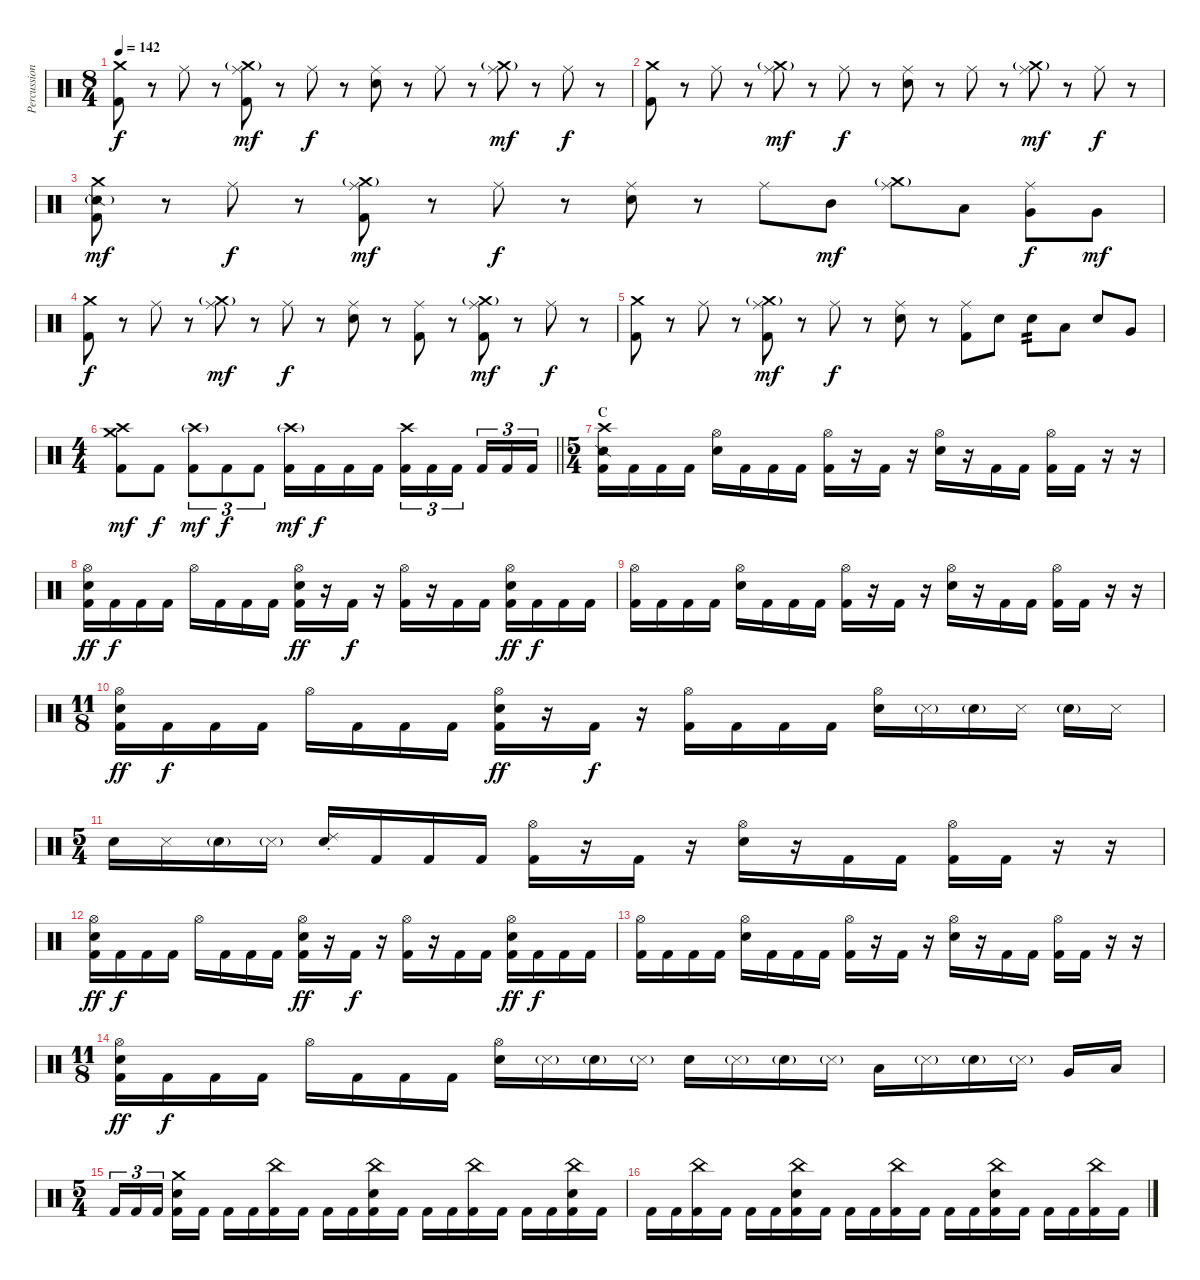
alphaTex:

\track ("Percussion" "Percussion") {instrument percussion}
\staff {score}
\articulation defaults
\ts (8 4)
\tempo 142
\clef neutral
\ks c
("Crash medium (hit)" "Kick (hit) 2").8{dy f} r.8 "Ride (middle)".8 r.8 ("Ride (middle)" "Crash medium (hit)"{g} "Kick (hit) 2").8{dy mf} r.8 "Ride (middle)".8{dy f} r.8 ("Ride (middle)" "Snare (hit) 2").8 r.8 "Ride (middle)".8 r.8 ("Ride (middle)" "Crash medium (hit)"{g}).8{dy mf} r.8 "Ride (middle)".8{dy f} r.8 |
("Crash medium (hit)" "Kick (hit) 2").8 r.8 "Ride (middle)".8 r.8 ("Ride (middle)" "Crash medium (hit)"{g}).8{dy mf} r.8 "Ride (middle)".8{dy f} r.8 ("Ride (middle)" "Snare (hit) 2").8 r.8 "Ride (middle)".8 r.8 ("Ride (middle)" "Crash medium (hit)"{g}).8{dy mf} r.8 "Ride (middle)".8{dy f} r.8 |
("Crash medium (hit)" "Snare (side stick) 2"{g} "Kick (hit) 2").8{dy mf} r.8 "Ride (middle)".8{dy f} r.8 ("Ride (middle)" "Crash medium (hit)"{g} "Kick (hit) 2").8{dy mf} r.8 "Ride (middle)".8{dy f} r.8 ("Ride (middle)" "Snare (hit) 2").8 r.8 "Ride (middle)".8 "Mid Tom (hit)".8{dy mf} ("Ride (middle)" "Crash medium (hit)"{g}).8 "Low Tom (hit)".8 ("Ride (middle)" "Very Low Tom (hit)").8{dy f} "Very Low Tom (hit)".8{dy mf} |
("Crash medium (hit)" "Kick (hit) 2").8{dy f} r.8 "Ride (middle)".8 r.8 ("Ride (middle)" "Crash medium (hit)"{g}).8{dy mf} r.8 "Ride (middle)".8{dy f} r.8 ("Ride (middle)" "Snare (hit) 2").8 r.8 ("Ride (middle)" "Kick (hit) 2").8 r.8 ("Ride (middle)" "Crash medium (hit)"{g} "Kick (hit) 2").8{dy mf} r.8 "Ride (middle)".8{dy f} r.8 |
("Crash medium (hit)" "Kick (hit) 2").8 r.8 "Ride (middle)".8 r.8 ("Ride (middle)" "Crash medium (hit)"{g} "Kick (hit) 2").8{dy mf} r.8 "Ride (middle)".8{dy f} r.8 ("Ride (middle)" "Snare (hit) 2").8 r.8 ("Ride (middle)" "Kick (hit) 2").8 "Snare (hit) 2".8 "Snare (hit) 2".8{tp 2} "Low Tom (hit)".8 "Snare (hit) 2".8 "Very Low Tom (hit)".8 |
\ts (4 4)
\barLineRight lightlight
("Crash high (hit)" "Crash medium (hit)" "Kick (hit) 2").8{dy mf} "Kick (hit) 2".8{dy f} ("Crash high (hit)"{g} "Kick (hit) 2").8{tu (3 2) dy mf} "Kick (hit) 2".8{tu (3 2) dy f} "Kick (hit) 2".8{tu (3 2)} ("Crash high (hit)"{g} "Kick (hit) 2").16{dy mf} "Kick (hit) 2".16{dy f} "Kick (hit) 2".16 "Kick (hit) 2".16 ("Crash high (hit)" "Kick (hit) 2").16{tu (3 2)} "Kick (hit) 2".16{tu (3 2)} "Kick (hit) 2".16{tu (3 2) beam splitsecondary} "Kick (hit) 2".16{tu (3 2)} "Kick (hit) 2".16{tu (3 2)} "Kick (hit) 2".16{tu (3 2)} |
\ts (5 4)
\section ("" "C")
("Crash high (hit)" "Snare (side stick) 2" "Kick (hit) 2").16 "Kick (hit) 2".16 "Kick (hit) 2".16 "Kick (hit) 2".16 ("Hi-Hat (open)" "Snare (hit) 2").16 "Kick (hit) 2".16 "Kick (hit) 2".16 "Kick (hit) 2".16 ("Hi-Hat (open)" "Kick (hit) 2").16 r.16 "Kick (hit) 2".16 r.16 ("Hi-Hat (open)" "Snare (hit) 2").16 r.16 "Kick (hit) 2".16 "Kick (hit) 2".16 ("Hi-Hat (open)" "Kick (hit) 2").16 "Kick (hit) 2".16 r.16 r.16 |
("Hi-Hat (open)" "Snare (hit) 2" "Kick (hit) 2").16{dy ff} "Kick (hit) 2".16{dy f} "Kick (hit) 2".16 "Kick (hit) 2".16 "Hi-Hat (open)".16 "Kick (hit) 2".16 "Kick (hit) 2".16 "Kick (hit) 2".16 ("Hi-Hat (open)" "Snare (hit) 2" "Kick (hit) 2").16{dy ff} r.16 "Kick (hit) 2".16{dy f} r.16 ("Hi-Hat (open)" "Kick (hit) 2").16 r.16 "Kick (hit) 2".16 "Kick (hit) 2".16 ("Hi-Hat (open)" "Snare (hit) 2" "Kick (hit) 2").16{dy ff} "Kick (hit) 2".16{dy f} "Kick (hit) 2".16 "Kick (hit) 2".16 |
("Hi-Hat (open)" "Kick (hit) 2").16 "Kick (hit) 2".16 "Kick (hit) 2".16 "Kick (hit) 2".16 ("Hi-Hat (open)" "Snare (hit) 2").16 "Kick (hit) 2".16 "Kick (hit) 2".16 "Kick (hit) 2".16 ("Hi-Hat (open)" "Kick (hit) 2").16 r.16 "Kick (hit) 2".16 r.16 ("Hi-Hat (open)" "Snare (hit) 2").16 r.16 "Kick (hit) 2".16 "Kick (hit) 2".16 ("Hi-Hat (open)" "Kick (hit) 2").16 "Kick (hit) 2".16 r.16 r.16 |
\ts (11 8)
("Hi-Hat (open)" "Snare (hit) 2" "Kick (hit) 2").16{dy ff} "Kick (hit) 2".16{dy f} "Kick (hit) 2".16 "Kick (hit) 2".16 "Hi-Hat (open)".16 "Kick (hit) 2".16 "Kick (hit) 2".16 "Kick (hit) 2".16 ("Hi-Hat (open)" "Snare (hit) 2" "Kick (hit) 2").16{dy ff} r.16 "Kick (hit) 2".16{dy f} r.16 ("Hi-Hat (open)" "Kick (hit) 2").16 "Kick (hit) 2".16 "Kick (hit) 2".16 "Kick (hit) 2".16 ("Hi-Hat (open)" "Snare (hit) 2").16 "Metronome (hit)"{g}.16 "Snare (hit) 2"{g}.16 "Metronome (hit)".16 "Snare (hit) 2"{g}.16 "Metronome (hit)".16 |
\ts (5 4)
"Snare (hit) 2".16 "Metronome (hit)".16 "Snare (hit) 2"{g}.16 "Metronome (hit)"{g}.16 ("Ride (choke) 2" "Snare (hit) 2").16 "Kick (hit) 2".16 "Kick (hit) 2".16 "Kick (hit) 2".16 ("Hi-Hat (open)" "Kick (hit) 2").16 r.16 "Kick (hit) 2".16 r.16 ("Hi-Hat (open)" "Snare (hit) 2").16 r.16 "Kick (hit) 2".16 "Kick (hit) 2".16 ("Hi-Hat (open)" "Kick (hit) 2").16 "Kick (hit) 2".16 r.16 r.16 |
("Hi-Hat (open)" "Snare (hit) 2" "Kick (hit) 2").16{dy ff} "Kick (hit) 2".16{dy f} "Kick (hit) 2".16 "Kick (hit) 2".16 "Hi-Hat (open)".16 "Kick (hit) 2".16 "Kick (hit) 2".16 "Kick (hit) 2".16 ("Hi-Hat (open)" "Snare (hit) 2" "Kick (hit) 2").16{dy ff} r.16 "Kick (hit) 2".16{dy f} r.16 ("Hi-Hat (open)" "Kick (hit) 2").16 r.16 "Kick (hit) 2".16 "Kick (hit) 2".16 ("Hi-Hat (open)" "Snare (hit) 2" "Kick (hit) 2").16{dy ff} "Kick (hit) 2".16{dy f} "Kick (hit) 2".16 "Kick (hit) 2".16 |
("Hi-Hat (open)" "Kick (hit) 2").16 "Kick (hit) 2".16 "Kick (hit) 2".16 "Kick (hit) 2".16 ("Hi-Hat (open)" "Snare (hit) 2").16 "Kick (hit) 2".16 "Kick (hit) 2".16 "Kick (hit) 2".16 ("Hi-Hat (open)" "Kick (hit) 2").16 r.16 "Kick (hit) 2".16 r.16 ("Hi-Hat (open)" "Snare (hit) 2").16 r.16 "Kick (hit) 2".16 "Kick (hit) 2".16 ("Hi-Hat (open)" "Kick (hit) 2").16 "Kick (hit) 2".16 r.16 r.16 |
\ts (11 8)
("Hi-Hat (open)" "Snare (hit) 2" "Kick (hit) 2").16{dy ff} "Kick (hit) 2".16{dy f} "Kick (hit) 2".16 "Kick (hit) 2".16 "Hi-Hat (open)".16 "Kick (hit) 2".16 "Kick (hit) 2".16 "Kick (hit) 2".16 ("Hi-Hat (open)" "Snare (hit) 2").16 "Metronome (hit)"{g}.16 "Snare (hit) 2"{g}.16 "Metronome (hit)"{g}.16 "Snare (hit) 2".16 "Metronome (hit)"{g}.16 "Snare (hit) 2"{g}.16 "Metronome (hit)"{g}.16 "Low Tom (hit)".16 "Metronome (hit)"{g}.16 "Snare (hit) 2"{g}.16 "Metronome (hit)"{g}.16 "Very Low Tom (hit)".16 "Low Floor Tom (hit)".16 |
\ts (5 4)
"Kick (hit) 2".16{tu (3 2)} "Kick (hit) 2".16{tu (3 2)} "Kick (hit) 2".16{tu (3 2) beam splitsecondary} ("Crash medium (hit)" "Snare (hit) 2" "Kick (hit) 2").16 "Kick (hit) 2".16 "Kick (hit) 2".16 "Kick (hit) 2".16 ("China (hit)" "Kick (hit) 2").16 "Kick (hit) 2".16 "Kick (hit) 2".16 "Kick (hit) 2".16 ("China (hit)" "Snare (hit) 2" "Kick (hit) 2").16 "Kick (hit) 2".16 "Kick (hit) 2".16 "Kick (hit) 2".16 ("China (hit)" "Kick (hit) 2").16 "Kick (hit) 2".16 "Kick (hit) 2".16 "Kick (hit) 2".16 ("China (hit)" "Snare (hit) 2" "Kick (hit) 2").16 "Kick (hit) 2".16 |
"Kick (hit) 2".16 "Kick (hit) 2".16 ("China (hit)" "Kick (hit) 2").16 "Kick (hit) 2".16 "Kick (hit) 2".16 "Kick (hit) 2".16 ("China (hit)" "Snare (hit) 2" "Kick (hit) 2").16 "Kick (hit) 2".16 "Kick (hit) 2".16 "Kick (hit) 2".16 ("China (hit)" "Kick (hit) 2").16 "Kick (hit) 2".16 "Kick (hit) 2".16 "Kick (hit) 2".16 ("China (hit)" "Snare (hit) 2" "Kick (hit) 2").16 "Kick (hit) 2".16 "Kick (hit) 2".16 "Kick (hit) 2".16 ("China (hit)" "Kick (hit) 2").16 "Kick (hit) 2".16
